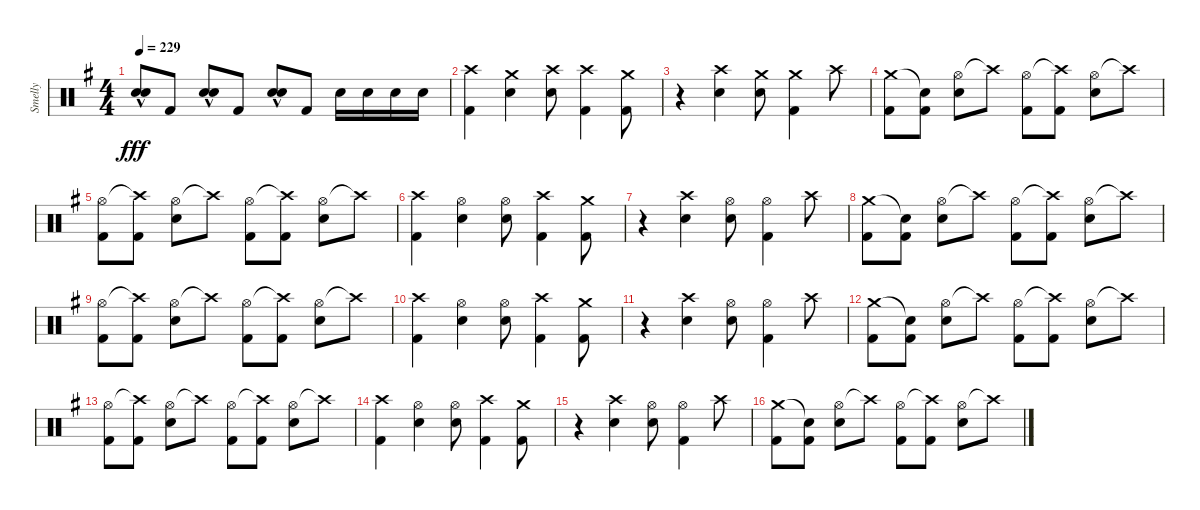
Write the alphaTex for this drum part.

\track ("Smelly" "Smelly") {instrument percussion}
\staff {score}
\articulation defaults
\ts (4 4)
\tempo 229
\clef neutral
\ks eminor
("Electric Snare (hit)"{hac} "Electric Snare (hit)"{hac}).8{dy fff} "Kick (hit) 2".8 ("Electric Snare (hit)"{hac} "Electric Snare (hit)"{hac}).8 "Kick (hit) 2".8 ("Electric Snare (hit)"{hac} "Electric Snare (hit)"{hac}).8 "Kick (hit) 2".8 "Electric Snare (hit)".16 "Electric Snare (hit)".16 "Electric Snare (hit)".16 "Electric Snare (hit)".16 |
("Crash high (hit)" "Kick (hit) 2").4 ("Crash medium (hit)" "Electric Snare (hit)").4 ("Crash high (hit)" "Electric Snare (hit)").8 ("Crash high (hit)" "Kick (hit) 2").4 ("Crash medium (hit)" "Kick (hit) 2").8 |
r.4 ("Crash high (hit)" "Electric Snare (hit)").4 ("Crash medium (hit)" "Electric Snare (hit)").8 ("Crash medium (hit)" "Kick (hit) 2").4 "Crash high (hit)".8 |
("Crash medium (hit)" "Kick (hit) 2").8 ("Snare (hit)"{t} "Kick (hit) 2").8 ("Hi-Hat (open)" "Electric Snare (hit)").8 "Crash high (hit)"{t}.8 ("Hi-Hat (open)" "Kick (hit) 2").8 ("Crash high (hit)"{t} "Kick (hit) 2").8 ("Hi-Hat (open)" "Electric Snare (hit)").8 "Crash high (hit)"{t}.8 |
("Hi-Hat (open)" "Kick (hit) 2").8 ("Crash high (hit)"{t} "Kick (hit) 2").8 ("Hi-Hat (open)" "Electric Snare (hit)").8 "Crash high (hit)"{t}.8 ("Hi-Hat (open)" "Kick (hit) 2").8 ("Crash high (hit)"{t} "Kick (hit) 2").8 ("Hi-Hat (open)" "Electric Snare (hit)").8 "Crash high (hit)"{t}.8 |
("Crash high (hit)" "Kick (hit) 2").4 ("Hi-Hat (open)" "Electric Snare (hit)").4 ("Hi-Hat (open)" "Electric Snare (hit)").8 ("Crash high (hit)" "Kick (hit) 2").4 ("Crash medium (hit)" "Kick (hit) 2").8 |
r.4 ("Crash high (hit)" "Electric Snare (hit)").4 ("Hi-Hat (open)" "Electric Snare (hit)").8 ("Hi-Hat (open)" "Kick (hit) 2").4 "Crash high (hit)".8 |
("Crash medium (hit)" "Kick (hit) 2").8 ("Snare (hit)"{t} "Kick (hit) 2").8 ("Hi-Hat (open)" "Electric Snare (hit)").8 "Crash high (hit)"{t}.8 ("Hi-Hat (open)" "Kick (hit) 2").8 ("Crash high (hit)"{t} "Kick (hit) 2").8 ("Hi-Hat (open)" "Electric Snare (hit)").8 "Crash high (hit)"{t}.8 |
("Hi-Hat (open)" "Kick (hit) 2").8 ("Crash high (hit)"{t} "Kick (hit) 2").8 ("Hi-Hat (open)" "Electric Snare (hit)").8 "Crash high (hit)"{t}.8 ("Hi-Hat (open)" "Kick (hit) 2").8 ("Crash high (hit)"{t} "Kick (hit) 2").8 ("Hi-Hat (open)" "Electric Snare (hit)").8 "Crash high (hit)"{t}.8 |
("Crash high (hit)" "Kick (hit) 2").4 ("Hi-Hat (open)" "Electric Snare (hit)").4 ("Hi-Hat (open)" "Electric Snare (hit)").8 ("Crash high (hit)" "Kick (hit) 2").4 ("Crash medium (hit)" "Kick (hit) 2").8 |
r.4 ("Crash high (hit)" "Electric Snare (hit)").4 ("Hi-Hat (open)" "Electric Snare (hit)").8 ("Hi-Hat (open)" "Kick (hit) 2").4 "Crash high (hit)".8 |
("Crash medium (hit)" "Kick (hit) 2").8 ("Snare (hit)"{t} "Kick (hit) 2").8 ("Hi-Hat (open)" "Electric Snare (hit)").8 "Crash high (hit)"{t}.8 ("Hi-Hat (open)" "Kick (hit) 2").8 ("Crash high (hit)"{t} "Kick (hit) 2").8 ("Hi-Hat (open)" "Electric Snare (hit)").8 "Crash high (hit)"{t}.8 |
("Hi-Hat (open)" "Kick (hit) 2").8 ("Crash high (hit)"{t} "Kick (hit) 2").8 ("Hi-Hat (open)" "Electric Snare (hit)").8 "Crash high (hit)"{t}.8 ("Hi-Hat (open)" "Kick (hit) 2").8 ("Crash high (hit)"{t} "Kick (hit) 2").8 ("Hi-Hat (open)" "Electric Snare (hit)").8 "Crash high (hit)"{t}.8 |
("Crash high (hit)" "Kick (hit) 2").4 ("Hi-Hat (open)" "Electric Snare (hit)").4 ("Hi-Hat (open)" "Electric Snare (hit)").8 ("Crash high (hit)" "Kick (hit) 2").4 ("Crash medium (hit)" "Kick (hit) 2").8 |
r.4 ("Crash high (hit)" "Electric Snare (hit)").4 ("Hi-Hat (open)" "Electric Snare (hit)").8 ("Hi-Hat (open)" "Kick (hit) 2").4 "Crash high (hit)".8 |
("Crash medium (hit)" "Kick (hit) 2").8 ("Snare (hit)"{t} "Kick (hit) 2").8 ("Hi-Hat (open)" "Electric Snare (hit)").8 "Crash high (hit)"{t}.8 ("Hi-Hat (open)" "Kick (hit) 2").8 ("Crash high (hit)"{t} "Kick (hit) 2").8 ("Hi-Hat (open)" "Electric Snare (hit)").8 "Crash high (hit)"{t}.8
